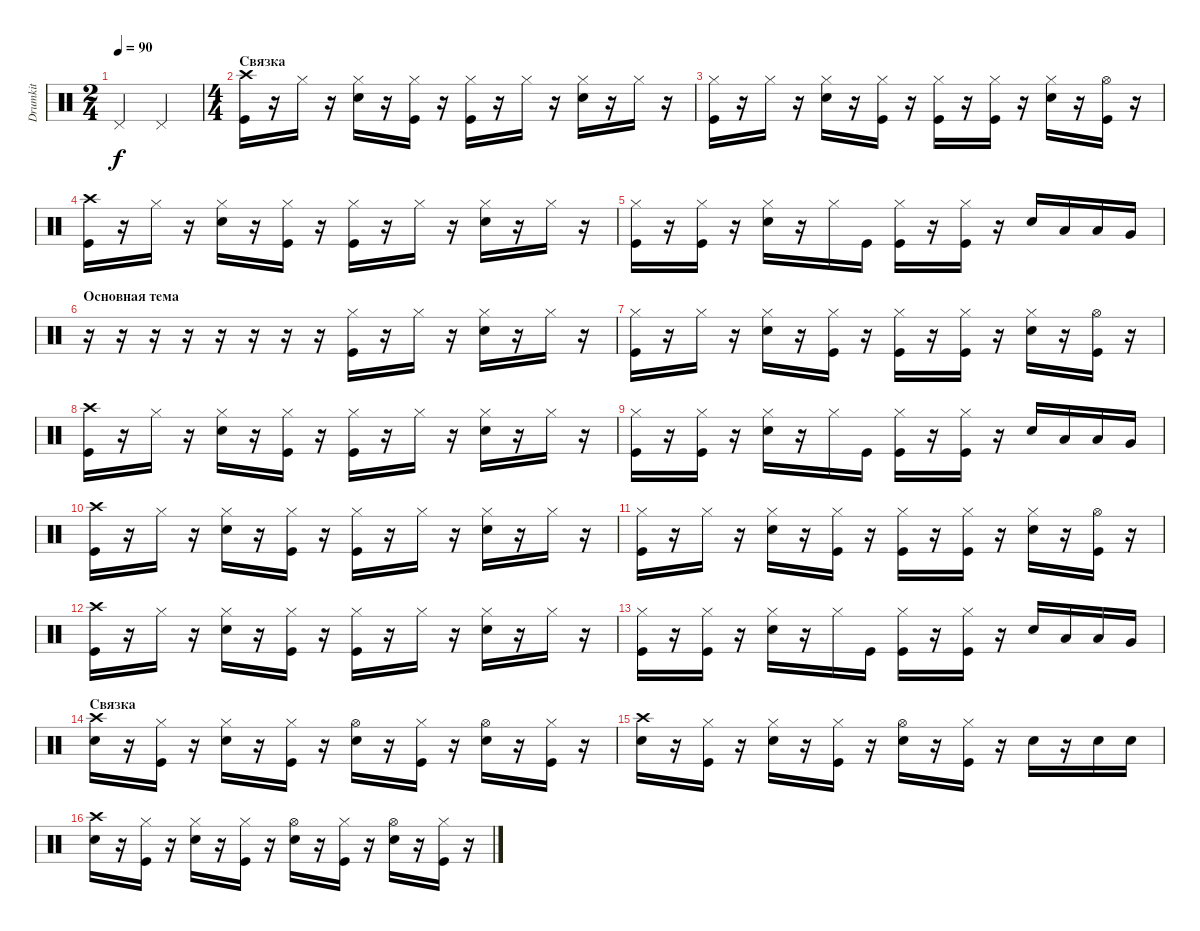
\track ("Drumkit" "Drumkit") {instrument percussion}
\staff {score}
\articulation defaults
\ts (2 4)
\tempo 90
\clef neutral
\ks c "Pedal Hi-Hat (hit)".4{dy f} "Pedal Hi-Hat (hit)".4
|
\ts (4 4)
\section ("" "Связка")
("Kick (hit)" "Crash high (hit)").16 r.16 "Hi-Hat (closed)".16 r.16 ("Hi-Hat (closed)" "Snare (hit) 2").16 r.16 ("Hi-Hat (closed)" "Kick (hit)").16 r.16 ("Hi-Hat (closed)" "Kick (hit)").16 r.16 "Hi-Hat (closed)".16 r.16 ("Hi-Hat (closed)" "Snare (hit) 2").16 r.16 "Hi-Hat (closed)".16 r.16 |
("Hi-Hat (closed)" "Kick (hit)").16 r.16 "Hi-Hat (closed)".16 r.16 ("Hi-Hat (closed)" "Snare (hit) 2").16 r.16 ("Hi-Hat (closed)" "Kick (hit)").16 r.16 ("Hi-Hat (closed)" "Kick (hit)").16 r.16 ("Hi-Hat (closed)" "Kick (hit)").16 r.16 ("Hi-Hat (closed)" "Snare (hit) 2").16 r.16 ("Hi-Hat (open)" "Kick (hit)").16 r.16 |
("Kick (hit)" "Crash high (hit)").16 r.16 "Hi-Hat (closed)".16 r.16 ("Hi-Hat (closed)" "Snare (hit) 2").16 r.16 ("Hi-Hat (closed)" "Kick (hit)").16 r.16 ("Hi-Hat (closed)" "Kick (hit)").16 r.16 "Hi-Hat (closed)".16 r.16 ("Hi-Hat (closed)" "Snare (hit) 2").16 r.16 "Hi-Hat (closed)".16 r.16 |
("Hi-Hat (closed)" "Kick (hit)").16 r.16 ("Hi-Hat (closed)" "Kick (hit)").16 r.16 ("Hi-Hat (closed)" "Snare (hit) 2").16 r.16 "Hi-Hat (closed)".16 "Kick (hit)".16 ("Hi-Hat (closed)" "Kick (hit)").16 r.16 ("Hi-Hat (closed)" "Kick (hit)").16 r.16 "Snare (hit) 2".16 "Low Tom (hit)".16 "Low Floor Tom (hit)".16 "Very Low Tom (hit)".16 |
\section ("" "Основная тема")
r.16 r.16 r.16 r.16 r.16 r.16 r.16 r.16 ("Hi-Hat (closed)" "Kick (hit)").16 r.16 "Hi-Hat (closed)".16 r.16 ("Hi-Hat (closed)" "Snare (hit) 2").16 r.16 "Hi-Hat (closed)".16 r.16 |
("Hi-Hat (closed)" "Kick (hit)").16 r.16 "Hi-Hat (closed)".16 r.16 ("Hi-Hat (closed)" "Snare (hit) 2").16 r.16 ("Hi-Hat (closed)" "Kick (hit)").16 r.16 ("Hi-Hat (closed)" "Kick (hit)").16 r.16 ("Hi-Hat (closed)" "Kick (hit)").16 r.16 ("Hi-Hat (closed)" "Snare (hit) 2").16 r.16 ("Hi-Hat (open)" "Kick (hit)").16 r.16 |
("Kick (hit)" "Crash high (hit)").16 r.16 "Hi-Hat (closed)".16 r.16 ("Hi-Hat (closed)" "Snare (hit) 2").16 r.16 ("Hi-Hat (closed)" "Kick (hit)").16 r.16 ("Hi-Hat (closed)" "Kick (hit)").16 r.16 "Hi-Hat (closed)".16 r.16 ("Hi-Hat (closed)" "Snare (hit) 2").16 r.16 "Hi-Hat (closed)".16 r.16 |
("Hi-Hat (closed)" "Kick (hit)").16 r.16 ("Hi-Hat (closed)" "Kick (hit)").16 r.16 ("Hi-Hat (closed)" "Snare (hit) 2").16 r.16 "Hi-Hat (closed)".16 "Kick (hit)".16 ("Hi-Hat (closed)" "Kick (hit)").16 r.16 ("Hi-Hat (closed)" "Kick (hit)").16 r.16 "Snare (hit) 2".16 "Low Tom (hit)".16 "Low Floor Tom (hit)".16 "Very Low Tom (hit)".16 |
("Kick (hit)" "Crash high (hit)").16 r.16 "Hi-Hat (closed)".16 r.16 ("Hi-Hat (closed)" "Snare (hit) 2").16 r.16 ("Hi-Hat (closed)" "Kick (hit)").16 r.16 ("Hi-Hat (closed)" "Kick (hit)").16 r.16 "Hi-Hat (closed)".16 r.16 ("Hi-Hat (closed)" "Snare (hit) 2").16 r.16 "Hi-Hat (closed)".16 r.16 |
("Hi-Hat (closed)" "Kick (hit)").16 r.16 "Hi-Hat (closed)".16 r.16 ("Hi-Hat (closed)" "Snare (hit) 2").16 r.16 ("Hi-Hat (closed)" "Kick (hit)").16 r.16 ("Hi-Hat (closed)" "Kick (hit)").16 r.16 ("Hi-Hat (closed)" "Kick (hit)").16 r.16 ("Hi-Hat (closed)" "Snare (hit) 2").16 r.16 ("Hi-Hat (open)" "Kick (hit)").16 r.16 |
("Kick (hit)" "Crash high (hit)").16 r.16 "Hi-Hat (closed)".16 r.16 ("Hi-Hat (closed)" "Snare (hit) 2").16 r.16 ("Hi-Hat (closed)" "Kick (hit)").16 r.16 ("Hi-Hat (closed)" "Kick (hit)").16 r.16 "Hi-Hat (closed)".16 r.16 ("Hi-Hat (closed)" "Snare (hit) 2").16 r.16 "Hi-Hat (closed)".16 r.16 |
("Hi-Hat (closed)" "Kick (hit)").16 r.16 ("Hi-Hat (closed)" "Kick (hit)").16 r.16 ("Hi-Hat (closed)" "Snare (hit) 2").16 r.16 "Hi-Hat (closed)".16 "Kick (hit)".16 ("Hi-Hat (closed)" "Kick (hit)").16 r.16 ("Hi-Hat (closed)" "Kick (hit)").16 r.16 "Snare (hit) 2".16 "Low Tom (hit)".16 "Low Floor Tom (hit)".16 "Very Low Tom (hit)".16 |
\section ("" "Связка")
("Crash high (hit)" "Snare (hit) 2").16 r.16 ("Hi-Hat (closed)" "Kick (hit)").16 r.16 ("Hi-Hat (closed)" "Snare (hit) 2").16 r.16 ("Hi-Hat (closed)" "Kick (hit)").16 r.16 ("Hi-Hat (open)" "Snare (hit) 2").16 r.16 ("Hi-Hat (closed)" "Kick (hit)").16 r.16 ("Hi-Hat (open)" "Snare (hit) 2").16 r.16 ("Hi-Hat (closed)" "Kick (hit)").16 r.16 |
("Crash high (hit)" "Snare (hit) 2").16 r.16 ("Hi-Hat (closed)" "Kick (hit)").16 r.16 ("Hi-Hat (closed)" "Snare (hit) 2").16 r.16 ("Hi-Hat (closed)" "Kick (hit)").16 r.16 ("Hi-Hat (open)" "Snare (hit) 2").16 r.16 ("Hi-Hat (closed)" "Kick (hit)").16 r.16 "Snare (hit) 2".16 r.16 "Snare (hit) 2".16 "Snare (hit) 2".16 |
("Crash high (hit)" "Snare (hit) 2").16 r.16 ("Hi-Hat (closed)" "Kick (hit)").16 r.16 ("Hi-Hat (closed)" "Snare (hit) 2").16 r.16 ("Hi-Hat (closed)" "Kick (hit)").16 r.16 ("Hi-Hat (open)" "Snare (hit) 2").16 r.16 ("Hi-Hat (closed)" "Kick (hit)").16 r.16 ("Hi-Hat (open)" "Snare (hit) 2").16 r.16 ("Hi-Hat (closed)" "Kick (hit)").16 r.16
